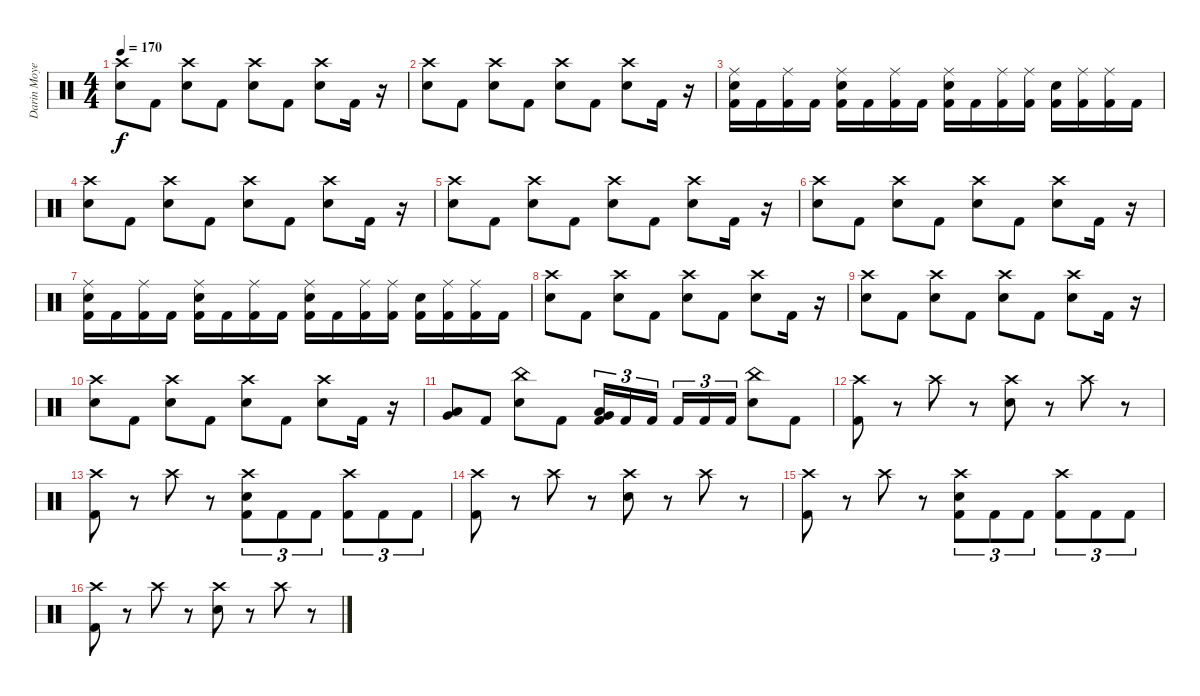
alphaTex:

\track ("Darin Moyen" "Darin Moye") {instrument percussion}
\staff {score}
\articulation defaults
\ts (4 4)
\tempo 170
\clef neutral
\ks c
("Crash high (hit)" "Electric Snare (hit)").8{dy f} "Kick (hit) 2".8 ("Crash high (hit)" "Electric Snare (hit)").8 "Kick (hit) 2".8 ("Crash high (hit)" "Electric Snare (hit)").8 "Kick (hit) 2".8 ("Crash high (hit)" "Electric Snare (hit)").8 "Kick (hit) 2".16 r.16 |
("Crash high (hit)" "Electric Snare (hit)").8 "Kick (hit) 2".8 ("Crash high (hit)" "Electric Snare (hit)").8 "Kick (hit) 2".8 ("Crash high (hit)" "Electric Snare (hit)").8 "Kick (hit) 2".8 ("Crash high (hit)" "Electric Snare (hit)").8 "Kick (hit) 2".16 r.16 |
("Ride (middle)" "Electric Snare (hit)" "Kick (hit) 2").16 "Kick (hit) 2".16 ("Ride (middle)" "Kick (hit) 2").16 "Kick (hit) 2".16 ("Ride (middle)" "Electric Snare (hit)" "Kick (hit) 2").16 "Kick (hit) 2".16 ("Ride (middle)" "Kick (hit) 2").16 "Kick (hit) 2".16 ("Ride (middle)" "Electric Snare (hit)" "Kick (hit) 2").16 "Kick (hit) 2".16 ("Ride (middle)" "Kick (hit) 2").16 ("Ride (middle)" "Kick (hit) 2").16 ("Electric Snare (hit)" "Kick (hit) 2").16 ("Ride (middle)" "Kick (hit) 2").16 ("Ride (middle)" "Kick (hit) 2").16 "Kick (hit) 2".16 |
("Crash high (hit)" "Electric Snare (hit)").8 "Kick (hit) 2".8 ("Crash high (hit)" "Electric Snare (hit)").8 "Kick (hit) 2".8 ("Crash high (hit)" "Electric Snare (hit)").8 "Kick (hit) 2".8 ("Crash high (hit)" "Electric Snare (hit)").8 "Kick (hit) 2".16 r.16 |
("Crash high (hit)" "Electric Snare (hit)").8 "Kick (hit) 2".8 ("Crash high (hit)" "Electric Snare (hit)").8 "Kick (hit) 2".8 ("Crash high (hit)" "Electric Snare (hit)").8 "Kick (hit) 2".8 ("Crash high (hit)" "Electric Snare (hit)").8 "Kick (hit) 2".16 r.16 |
("Crash high (hit)" "Electric Snare (hit)").8 "Kick (hit) 2".8 ("Crash high (hit)" "Electric Snare (hit)").8 "Kick (hit) 2".8 ("Crash high (hit)" "Electric Snare (hit)").8 "Kick (hit) 2".8 ("Crash high (hit)" "Electric Snare (hit)").8 "Kick (hit) 2".16 r.16 |
("Ride (middle)" "Electric Snare (hit)" "Kick (hit) 2").16 "Kick (hit) 2".16 ("Ride (middle)" "Kick (hit) 2").16 "Kick (hit) 2".16 ("Ride (middle)" "Electric Snare (hit)" "Kick (hit) 2").16 "Kick (hit) 2".16 ("Ride (middle)" "Kick (hit) 2").16 "Kick (hit) 2".16 ("Ride (middle)" "Electric Snare (hit)" "Kick (hit) 2").16 "Kick (hit) 2".16 ("Ride (middle)" "Kick (hit) 2").16 ("Ride (middle)" "Kick (hit) 2").16 ("Electric Snare (hit)" "Kick (hit) 2").16 ("Ride (middle)" "Kick (hit) 2").16 ("Ride (middle)" "Kick (hit) 2").16 "Kick (hit) 2".16 |
("Crash high (hit)" "Electric Snare (hit)").8 "Kick (hit) 2".8 ("Crash high (hit)" "Electric Snare (hit)").8 "Kick (hit) 2".8 ("Crash high (hit)" "Electric Snare (hit)").8 "Kick (hit) 2".8 ("Crash high (hit)" "Electric Snare (hit)").8 "Kick (hit) 2".16 r.16 |
("Crash high (hit)" "Electric Snare (hit)").8 "Kick (hit) 2".8 ("Crash high (hit)" "Electric Snare (hit)").8 "Kick (hit) 2".8 ("Crash high (hit)" "Electric Snare (hit)").8 "Kick (hit) 2".8 ("Crash high (hit)" "Electric Snare (hit)").8 "Kick (hit) 2".16 r.16 |
("Crash high (hit)" "Electric Snare (hit)").8 "Kick (hit) 2".8 ("Crash high (hit)" "Electric Snare (hit)").8 "Kick (hit) 2".8 ("Crash high (hit)" "Electric Snare (hit)").8 "Kick (hit) 2".8 ("Crash high (hit)" "Electric Snare (hit)").8 "Kick (hit) 2".16 r.16 |
("Low Tom (hit)" "Very Low Tom (hit)").8 "Kick (hit) 2".8 ("China (hit)" "Electric Snare (hit)").8 "Kick (hit) 2".8 ("Low Tom (hit)" "Very Low Tom (hit)" "Kick (hit) 2").16{tu (3 2)} "Kick (hit) 2".16{tu (3 2)} "Kick (hit) 2".16{tu (3 2) beam splitsecondary} "Kick (hit) 2".16{tu (3 2)} "Kick (hit) 2".16{tu (3 2)} "Kick (hit) 2".16{tu (3 2)} ("China (hit)" "Electric Snare (hit)").8 "Kick (hit) 2".8 |
("Crash high (hit)" "Kick (hit) 2").8 r.8 "Crash high (hit)".8 r.8 ("Crash high (hit)" "Electric Snare (hit)").8 r.8 "Crash high (hit)".8 r.8 |
("Crash high (hit)" "Kick (hit) 2").8 r.8 "Crash high (hit)".8 r.8 ("Crash high (hit)" "Electric Snare (hit)" "Kick (hit) 2").8{tu (3 2)} "Kick (hit) 2".8{tu (3 2)} "Kick (hit) 2".8{tu (3 2)} ("Crash high (hit)" "Kick (hit) 2").8{tu (3 2)} "Kick (hit) 2".8{tu (3 2)} "Kick (hit) 2".8{tu (3 2)} |
("Crash high (hit)" "Kick (hit) 2").8 r.8 "Crash high (hit)".8 r.8 ("Crash high (hit)" "Electric Snare (hit)").8 r.8 "Crash high (hit)".8 r.8 |
("Crash high (hit)" "Kick (hit) 2").8 r.8 "Crash high (hit)".8 r.8 ("Crash high (hit)" "Electric Snare (hit)" "Kick (hit) 2").8{tu (3 2)} "Kick (hit) 2".8{tu (3 2)} "Kick (hit) 2".8{tu (3 2)} ("Crash high (hit)" "Kick (hit) 2").8{tu (3 2)} "Kick (hit) 2".8{tu (3 2)} "Kick (hit) 2".8{tu (3 2)} |
("Crash high (hit)" "Kick (hit) 2").8 r.8 "Crash high (hit)".8 r.8 ("Crash high (hit)" "Electric Snare (hit)").8 r.8 "Crash high (hit)".8 r.8
